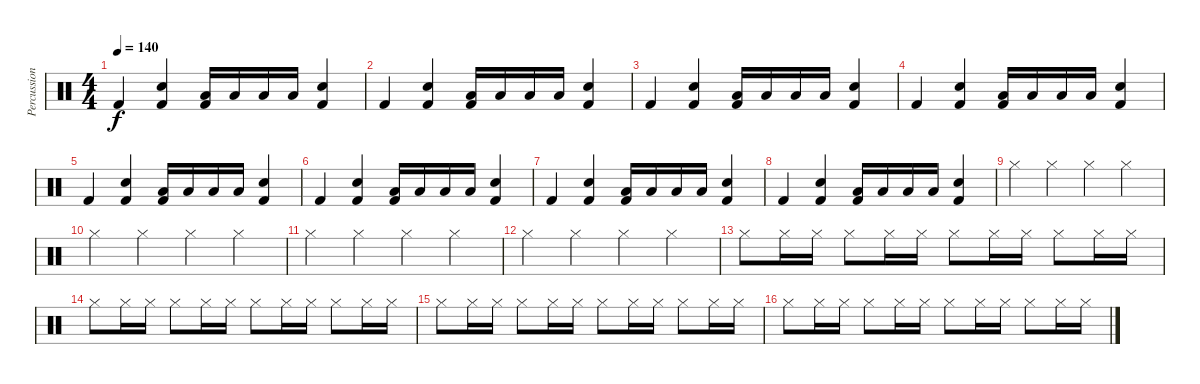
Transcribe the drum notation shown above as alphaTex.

\track ("Percussion" "Percussion") {instrument percussion}
\staff {score}
\articulation defaults
\ts (4 4)
\tempo 140
\clef neutral
\ks c "Kick (hit) 2".4{dy f}
("Snare (hit) 2" "Kick (hit) 2").4 ("Low Tom (hit)" "Kick (hit) 2").16 "Low Tom (hit)".16 "Low Tom (hit)".16 "Low Tom (hit)".16 ("Snare (hit) 2" "Kick (hit) 2").4 |
"Kick (hit) 2".4 ("Snare (hit) 2" "Kick (hit) 2").4 ("Low Tom (hit)" "Kick (hit) 2").16 "Low Tom (hit)".16 "Low Tom (hit)".16 "Low Tom (hit)".16 ("Snare (hit) 2" "Kick (hit) 2").4 |
"Kick (hit) 2".4 ("Snare (hit) 2" "Kick (hit) 2").4 ("Low Tom (hit)" "Kick (hit) 2").16 "Low Tom (hit)".16 "Low Tom (hit)".16 "Low Tom (hit)".16 ("Snare (hit) 2" "Kick (hit) 2").4 |
"Kick (hit) 2".4 ("Snare (hit) 2" "Kick (hit) 2").4 ("Low Tom (hit)" "Kick (hit) 2").16 "Low Tom (hit)".16 "Low Tom (hit)".16 "Low Tom (hit)".16 ("Snare (hit) 2" "Kick (hit) 2").4 |
"Kick (hit) 2".4 ("Snare (hit) 2" "Kick (hit) 2").4 ("Low Tom (hit)" "Kick (hit) 2").16 "Low Tom (hit)".16 "Low Tom (hit)".16 "Low Tom (hit)".16 ("Snare (hit) 2" "Kick (hit) 2").4 |
"Kick (hit) 2".4 ("Snare (hit) 2" "Kick (hit) 2").4 ("Low Tom (hit)" "Kick (hit) 2").16 "Low Tom (hit)".16 "Low Tom (hit)".16 "Low Tom (hit)".16 ("Snare (hit) 2" "Kick (hit) 2").4 |
"Kick (hit) 2".4 ("Snare (hit) 2" "Kick (hit) 2").4 ("Low Tom (hit)" "Kick (hit) 2").16 "Low Tom (hit)".16 "Low Tom (hit)".16 "Low Tom (hit)".16 ("Snare (hit) 2" "Kick (hit) 2").4 |
"Kick (hit) 2".4 ("Snare (hit) 2" "Kick (hit) 2").4 ("Low Tom (hit)" "Kick (hit) 2").16 "Low Tom (hit)".16 "Low Tom (hit)".16 "Low Tom (hit)".16 ("Snare (hit) 2" "Kick (hit) 2").4 |
"Hi-Hat (closed)".4 "Hi-Hat (closed)".4 "Hi-Hat (closed)".4 "Hi-Hat (closed)".4 |
"Hi-Hat (closed)".4 "Hi-Hat (closed)".4 "Hi-Hat (closed)".4 "Hi-Hat (closed)".4 |
"Hi-Hat (closed)".4 "Hi-Hat (closed)".4 "Hi-Hat (closed)".4 "Hi-Hat (closed)".4 |
"Hi-Hat (closed)".4 "Hi-Hat (closed)".4 "Hi-Hat (closed)".4 "Hi-Hat (closed)".4 |
"Hi-Hat (closed)".8 "Hi-Hat (closed)".16 "Hi-Hat (closed)".16 "Hi-Hat (closed)".8 "Hi-Hat (closed)".16 "Hi-Hat (closed)".16 "Hi-Hat (closed)".8 "Hi-Hat (closed)".16 "Hi-Hat (closed)".16 "Hi-Hat (closed)".8 "Hi-Hat (closed)".16 "Hi-Hat (closed)".16 |
"Hi-Hat (closed)".8 "Hi-Hat (closed)".16 "Hi-Hat (closed)".16 "Hi-Hat (closed)".8 "Hi-Hat (closed)".16 "Hi-Hat (closed)".16 "Hi-Hat (closed)".8 "Hi-Hat (closed)".16 "Hi-Hat (closed)".16 "Hi-Hat (closed)".8 "Hi-Hat (closed)".16 "Hi-Hat (closed)".16 |
"Hi-Hat (closed)".8 "Hi-Hat (closed)".16 "Hi-Hat (closed)".16 "Hi-Hat (closed)".8 "Hi-Hat (closed)".16 "Hi-Hat (closed)".16 "Hi-Hat (closed)".8 "Hi-Hat (closed)".16 "Hi-Hat (closed)".16 "Hi-Hat (closed)".8 "Hi-Hat (closed)".16 "Hi-Hat (closed)".16 |
"Hi-Hat (closed)".8 "Hi-Hat (closed)".16 "Hi-Hat (closed)".16 "Hi-Hat (closed)".8 "Hi-Hat (closed)".16 "Hi-Hat (closed)".16 "Hi-Hat (closed)".8 "Hi-Hat (closed)".16 "Hi-Hat (closed)".16 "Hi-Hat (closed)".8 "Hi-Hat (closed)".16 "Hi-Hat (closed)".16
